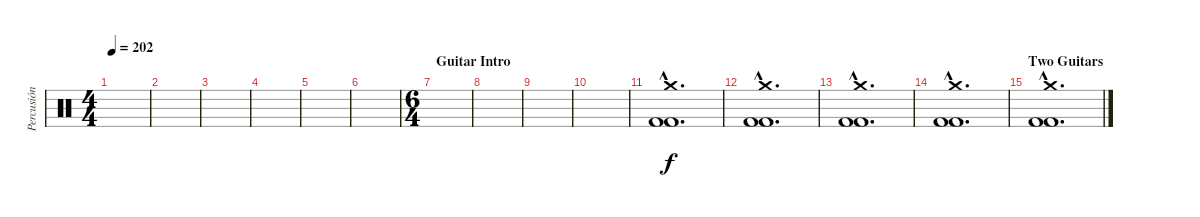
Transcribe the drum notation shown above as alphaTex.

\track ("Percusión" "Percusión") {instrument percussion}
\staff {score}
\articulation defaults
\ts (4 4)
\tempo 202
\clef neutral
\ks c
|
|
|
|
|
|
\ts (6 4)
\section ("" "Guitar Intro")
|
|
|
|
("Crash medium (hit)"{hac} "Kick (hit) 2"{hac} "Kick (hit) 2"{hac}).1{d} |
("Crash medium (hit)"{hac} "Kick (hit) 2"{hac} "Kick (hit) 2"{hac}).1{d} |
("Crash medium (hit)"{hac} "Kick (hit) 2"{hac} "Kick (hit) 2"{hac}).1{d} |
("Crash medium (hit)"{hac} "Kick (hit) 2"{hac} "Kick (hit) 2"{hac}).1{d} |
\section ("" "Two Guitars")
("Crash medium (hit)"{hac} "Kick (hit) 2"{hac} "Kick (hit) 2"{hac}).1{d}
